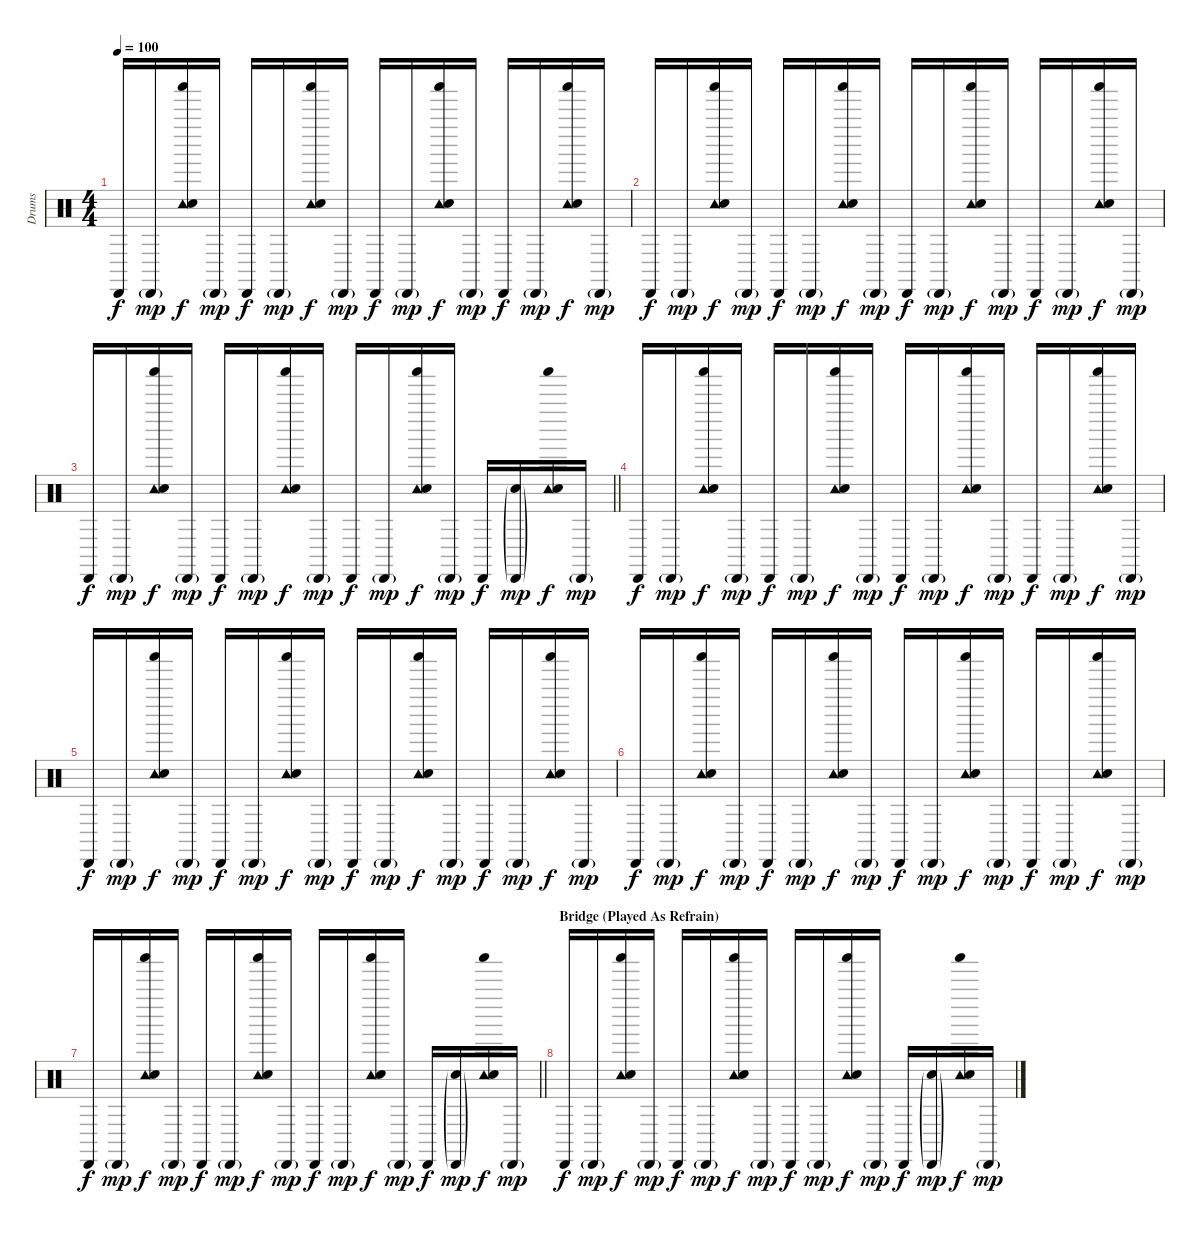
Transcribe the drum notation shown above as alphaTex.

\track ("Drums" "Drums") {instrument percussion}
\staff {score}
\articulation defaults
\ts (4 4)
\tempo 100
\clef neutral
\ks c "Cabasa (hit)".16{dy f} "Cabasa (hit)"{g}.16{dy mp}
("Tambourine (hit)" "Shaker (hit)" "Electric Snare (hit)").16{dy f} "Cabasa (hit)"{g}.16{dy mp} "Cabasa (hit)".16{dy f} "Cabasa (hit)"{g}.16{dy mp} ("Tambourine (hit)" "Shaker (hit)" "Electric Snare (hit)").16{dy f} "Cabasa (hit)"{g}.16{dy mp} "Cabasa (hit)".16{dy f} "Cabasa (hit)"{g}.16{dy mp} ("Tambourine (hit)" "Shaker (hit)" "Electric Snare (hit)").16{dy f} "Cabasa (hit)"{g}.16{dy mp} "Cabasa (hit)".16{dy f} "Cabasa (hit)"{g}.16{dy mp} ("Tambourine (hit)" "Shaker (hit)" "Electric Snare (hit)").16{dy f} "Cabasa (hit)"{g}.16{dy mp} |
"Cabasa (hit)".16{dy f} "Cabasa (hit)"{g}.16{dy mp} ("Tambourine (hit)" "Shaker (hit)" "Electric Snare (hit)").16{dy f} "Cabasa (hit)"{g}.16{dy mp} "Cabasa (hit)".16{dy f} "Cabasa (hit)"{g}.16{dy mp} ("Tambourine (hit)" "Shaker (hit)" "Electric Snare (hit)").16{dy f} "Cabasa (hit)"{g}.16{dy mp} "Cabasa (hit)".16{dy f} "Cabasa (hit)"{g}.16{dy mp} ("Tambourine (hit)" "Shaker (hit)" "Electric Snare (hit)").16{dy f} "Cabasa (hit)"{g}.16{dy mp} "Cabasa (hit)".16{dy f} "Cabasa (hit)"{g}.16{dy mp} ("Tambourine (hit)" "Shaker (hit)" "Electric Snare (hit)").16{dy f} "Cabasa (hit)"{g}.16{dy mp} |
\barLineRight lightlight "Cabasa (hit)".16{dy f} "Cabasa (hit)"{g}.16{dy mp}
("Tambourine (hit)" "Shaker (hit)" "Electric Snare (hit)").16{dy f} "Cabasa (hit)"{g}.16{dy mp} "Cabasa (hit)".16{dy f} "Cabasa (hit)"{g}.16{dy mp} ("Tambourine (hit)" "Shaker (hit)" "Electric Snare (hit)").16{dy f} "Cabasa (hit)"{g}.16{dy mp} "Cabasa (hit)".16{dy f} "Cabasa (hit)"{g}.16{dy mp} ("Tambourine (hit)" "Shaker (hit)" "Electric Snare (hit)").16{dy f} "Cabasa (hit)"{g}.16{dy mp} "Cabasa (hit)".16{dy f} ("Cabasa (hit)"{g} "Electric Snare (hit)"{g}).16{dy mp} ("Tambourine (hit)" "Shaker (hit)" "Electric Snare (hit)").16{dy f} "Cabasa (hit)"{g}.16{dy mp} |
"Cabasa (hit)".16{dy f} "Cabasa (hit)"{g}.16{dy mp} ("Tambourine (hit)" "Shaker (hit)" "Electric Snare (hit)").16{dy f} "Cabasa (hit)"{g}.16{dy mp} "Cabasa (hit)".16{dy f} "Cabasa (hit)"{g}.16{dy mp} ("Tambourine (hit)" "Shaker (hit)" "Electric Snare (hit)").16{dy f} "Cabasa (hit)"{g}.16{dy mp} "Cabasa (hit)".16{dy f} "Cabasa (hit)"{g}.16{dy mp} ("Tambourine (hit)" "Shaker (hit)" "Electric Snare (hit)").16{dy f} "Cabasa (hit)"{g}.16{dy mp} "Cabasa (hit)".16{dy f} "Cabasa (hit)"{g}.16{dy mp} ("Tambourine (hit)" "Shaker (hit)" "Electric Snare (hit)").16{dy f} "Cabasa (hit)"{g}.16{dy mp} |
"Cabasa (hit)".16{dy f} "Cabasa (hit)"{g}.16{dy mp} ("Tambourine (hit)" "Shaker (hit)" "Electric Snare (hit)").16{dy f} "Cabasa (hit)"{g}.16{dy mp} "Cabasa (hit)".16{dy f} "Cabasa (hit)"{g}.16{dy mp} ("Tambourine (hit)" "Shaker (hit)" "Electric Snare (hit)").16{dy f} "Cabasa (hit)"{g}.16{dy mp} "Cabasa (hit)".16{dy f} "Cabasa (hit)"{g}.16{dy mp} ("Tambourine (hit)" "Shaker (hit)" "Electric Snare (hit)").16{dy f} "Cabasa (hit)"{g}.16{dy mp} "Cabasa (hit)".16{dy f} "Cabasa (hit)"{g}.16{dy mp} ("Tambourine (hit)" "Shaker (hit)" "Electric Snare (hit)").16{dy f} "Cabasa (hit)"{g}.16{dy mp} |
"Cabasa (hit)".16{dy f} "Cabasa (hit)"{g}.16{dy mp} ("Tambourine (hit)" "Shaker (hit)" "Electric Snare (hit)").16{dy f} "Cabasa (hit)"{g}.16{dy mp} "Cabasa (hit)".16{dy f} "Cabasa (hit)"{g}.16{dy mp} ("Tambourine (hit)" "Shaker (hit)" "Electric Snare (hit)").16{dy f} "Cabasa (hit)"{g}.16{dy mp} "Cabasa (hit)".16{dy f} "Cabasa (hit)"{g}.16{dy mp} ("Tambourine (hit)" "Shaker (hit)" "Electric Snare (hit)").16{dy f} "Cabasa (hit)"{g}.16{dy mp} "Cabasa (hit)".16{dy f} "Cabasa (hit)"{g}.16{dy mp} ("Tambourine (hit)" "Shaker (hit)" "Electric Snare (hit)").16{dy f} "Cabasa (hit)"{g}.16{dy mp} |
\barLineRight lightlight "Cabasa (hit)".16{dy f} "Cabasa (hit)"{g}.16{dy mp}
("Tambourine (hit)" "Shaker (hit)" "Electric Snare (hit)").16{dy f} "Cabasa (hit)"{g}.16{dy mp} "Cabasa (hit)".16{dy f} "Cabasa (hit)"{g}.16{dy mp} ("Tambourine (hit)" "Shaker (hit)" "Electric Snare (hit)").16{dy f} "Cabasa (hit)"{g}.16{dy mp} "Cabasa (hit)".16{dy f} "Cabasa (hit)"{g}.16{dy mp} ("Tambourine (hit)" "Shaker (hit)" "Electric Snare (hit)").16{dy f} "Cabasa (hit)"{g}.16{dy mp} "Cabasa (hit)".16{dy f} ("Cabasa (hit)"{g} "Electric Snare (hit)"{g}).16{dy mp} ("Tambourine (hit)" "Shaker (hit)" "Electric Snare (hit)").16{dy f} "Cabasa (hit)"{g}.16{dy mp} |
\section ("" "Bridge (Played As Refrain)")
"Cabasa (hit)".16{dy f} "Cabasa (hit)"{g}.16{dy mp} ("Tambourine (hit)" "Shaker (hit)" "Electric Snare (hit)").16{dy f} "Cabasa (hit)"{g}.16{dy mp} "Cabasa (hit)".16{dy f} "Cabasa (hit)"{g}.16{dy mp} ("Tambourine (hit)" "Shaker (hit)" "Electric Snare (hit)").16{dy f} "Cabasa (hit)"{g}.16{dy mp} "Cabasa (hit)".16{dy f} "Cabasa (hit)"{g}.16{dy mp} ("Tambourine (hit)" "Shaker (hit)" "Electric Snare (hit)").16{dy f} "Cabasa (hit)"{g}.16{dy mp} "Cabasa (hit)".16{dy f} ("Cabasa (hit)"{g} "Electric Snare (hit)"{g}).16{dy mp} ("Tambourine (hit)" "Shaker (hit)" "Electric Snare (hit)").16{dy f} "Cabasa (hit)"{g}.16{dy mp}
